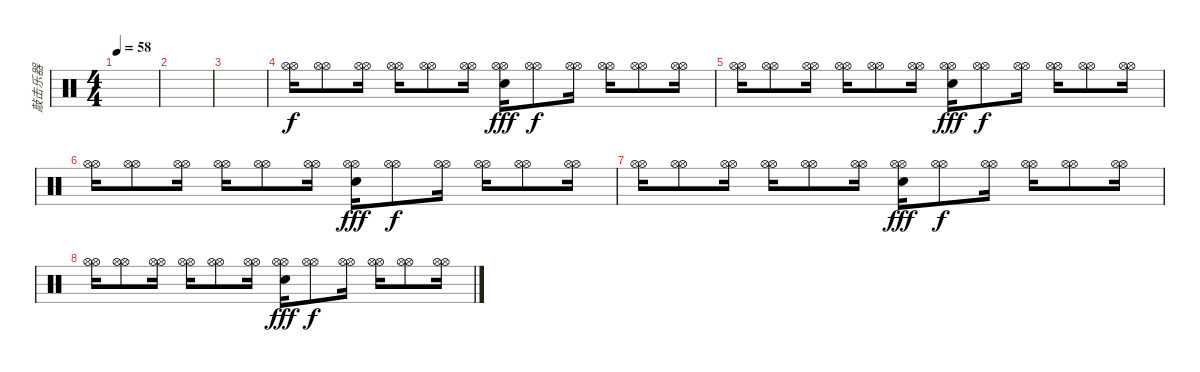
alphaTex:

\track ("敲击乐器" "敲击乐器") {instrument percussion}
\staff {score}
\articulation defaults
\ts (4 4)
\tempo 58
\clef neutral
\ks c
|
|
|
("Hi-Hat (open)" "Hi-Hat (open)").16 ("Hi-Hat (open)" "Hi-Hat (open)").8 ("Hi-Hat (open)" "Hi-Hat (open)").16 ("Hi-Hat (open)" "Hi-Hat (open)").16 ("Hi-Hat (open)" "Hi-Hat (open)").8 ("Hi-Hat (open)" "Hi-Hat (open)").16 ("Snare (hit) 2" "Hi-Hat (open)" "Hi-Hat (open)").16{dy fff} ("Hi-Hat (open)" "Hi-Hat (open)").8{dy f} ("Hi-Hat (open)" "Hi-Hat (open)").16 ("Hi-Hat (open)" "Hi-Hat (open)").16 ("Hi-Hat (open)" "Hi-Hat (open)").8 ("Hi-Hat (open)" "Hi-Hat (open)").16 |
("Hi-Hat (open)" "Hi-Hat (open)").16 ("Hi-Hat (open)" "Hi-Hat (open)").8 ("Hi-Hat (open)" "Hi-Hat (open)").16 ("Hi-Hat (open)" "Hi-Hat (open)").16 ("Hi-Hat (open)" "Hi-Hat (open)").8 ("Hi-Hat (open)" "Hi-Hat (open)").16 ("Snare (hit) 2" "Hi-Hat (open)" "Hi-Hat (open)").16{dy fff} ("Hi-Hat (open)" "Hi-Hat (open)").8{dy f} ("Hi-Hat (open)" "Hi-Hat (open)").16 ("Hi-Hat (open)" "Hi-Hat (open)").16 ("Hi-Hat (open)" "Hi-Hat (open)").8 ("Hi-Hat (open)" "Hi-Hat (open)").16 |
("Hi-Hat (open)" "Hi-Hat (open)").16 ("Hi-Hat (open)" "Hi-Hat (open)").8 ("Hi-Hat (open)" "Hi-Hat (open)").16 ("Hi-Hat (open)" "Hi-Hat (open)").16 ("Hi-Hat (open)" "Hi-Hat (open)").8 ("Hi-Hat (open)" "Hi-Hat (open)").16 ("Snare (hit) 2" "Hi-Hat (open)" "Hi-Hat (open)").16{dy fff} ("Hi-Hat (open)" "Hi-Hat (open)").8{dy f} ("Hi-Hat (open)" "Hi-Hat (open)").16 ("Hi-Hat (open)" "Hi-Hat (open)").16 ("Hi-Hat (open)" "Hi-Hat (open)").8 ("Hi-Hat (open)" "Hi-Hat (open)").16 |
("Hi-Hat (open)" "Hi-Hat (open)").16 ("Hi-Hat (open)" "Hi-Hat (open)").8 ("Hi-Hat (open)" "Hi-Hat (open)").16 ("Hi-Hat (open)" "Hi-Hat (open)").16 ("Hi-Hat (open)" "Hi-Hat (open)").8 ("Hi-Hat (open)" "Hi-Hat (open)").16 ("Snare (hit) 2" "Hi-Hat (open)" "Hi-Hat (open)").16{dy fff} ("Hi-Hat (open)" "Hi-Hat (open)").8{dy f} ("Hi-Hat (open)" "Hi-Hat (open)").16 ("Hi-Hat (open)" "Hi-Hat (open)").16 ("Hi-Hat (open)" "Hi-Hat (open)").8 ("Hi-Hat (open)" "Hi-Hat (open)").16 |
("Hi-Hat (open)" "Hi-Hat (open)").16 ("Hi-Hat (open)" "Hi-Hat (open)").8 ("Hi-Hat (open)" "Hi-Hat (open)").16 ("Hi-Hat (open)" "Hi-Hat (open)").16 ("Hi-Hat (open)" "Hi-Hat (open)").8 ("Hi-Hat (open)" "Hi-Hat (open)").16 ("Snare (hit) 2" "Hi-Hat (open)" "Hi-Hat (open)").16{dy fff} ("Hi-Hat (open)" "Hi-Hat (open)").8{dy f} ("Hi-Hat (open)" "Hi-Hat (open)").16 ("Hi-Hat (open)" "Hi-Hat (open)").16 ("Hi-Hat (open)" "Hi-Hat (open)").8 ("Hi-Hat (open)" "Hi-Hat (open)").16
